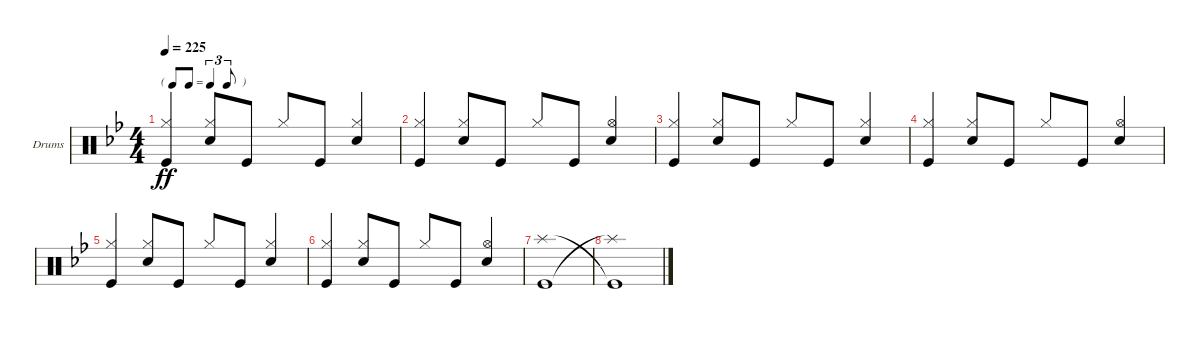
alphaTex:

\defaultSystemsLayout 4
\bracketExtendMode groupsimilarinstruments
\firstSystemTrackNameOrientation horizontal
\otherSystemsTrackNameOrientation horizontal
\track ("Drumkit" "Drums") {instrument percussion}
\staff {score}
\articulation defaults
\ts (4 4)
\tf triplet8th
\tempo 225
\clef neutral
\ks gminor
("Kick (hit)" "Hi-Hat (closed)").4{dy ff} ("Snare (hit) 2" "Hi-Hat (closed)").8{beam invert} "Kick (hit)".8 "Hi-Hat (closed)".8{beam invert} "Kick (hit)".8 ("Snare (hit) 2" "Hi-Hat (closed)").4{beam invert} |
("Kick (hit)" "Hi-Hat (closed)").4 ("Snare (hit) 2" "Hi-Hat (closed)").8{beam invert} "Kick (hit)".8 "Hi-Hat (closed)".8{beam invert} "Kick (hit)".8 ("Snare (hit) 2" "Hi-Hat (open)").4{beam invert} |
("Kick (hit)" "Hi-Hat (closed)").4 ("Snare (hit) 2" "Hi-Hat (closed)").8{beam invert} "Kick (hit)".8 "Hi-Hat (closed)".8{beam invert} "Kick (hit)".8 ("Snare (hit) 2" "Hi-Hat (closed)").4{beam invert} |
("Kick (hit)" "Hi-Hat (closed)").4 ("Snare (hit) 2" "Hi-Hat (closed)").8{beam invert} "Kick (hit)".8 "Hi-Hat (closed)".8{beam invert} "Kick (hit)".8 ("Snare (hit) 2" "Hi-Hat (open)").4{beam invert} |
("Kick (hit)" "Hi-Hat (closed)").4 ("Snare (hit) 2" "Hi-Hat (closed)").8{beam invert} "Kick (hit)".8 "Hi-Hat (closed)".8{beam invert} "Kick (hit)".8 ("Snare (hit) 2" "Hi-Hat (closed)").4{beam invert} |
("Kick (hit)" "Hi-Hat (closed)").4 ("Snare (hit) 2" "Hi-Hat (closed)").8{beam invert} "Kick (hit)".8 "Hi-Hat (closed)".8{beam invert} "Kick (hit)".8 ("Snare (hit) 2" "Hi-Hat (open)").4{beam invert} |
("Kick (hit)" "Splash (hit)").1 |
("Splash (hit)"{t} "Kick (hit)"{t}).1
